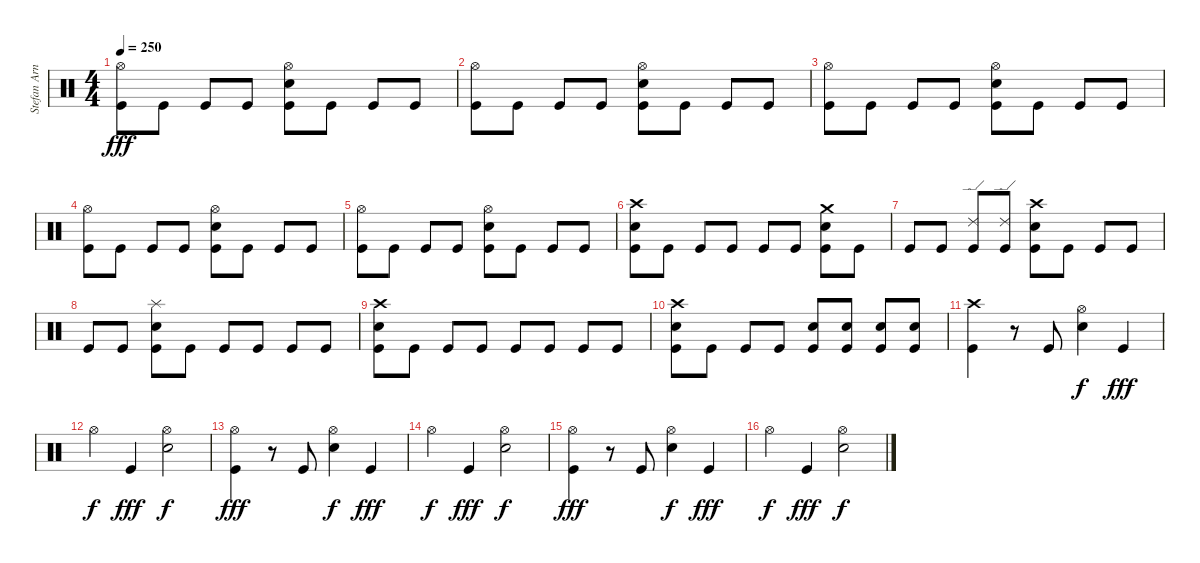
\track ("Stefan Arnold (Batería)" "Stefan Arn") {instrument percussion}
\staff {score}
\articulation defaults
\ts (4 4)
\tempo 250
\clef neutral
\ks c
("Hi-Hat (open)" "Kick (hit)").8{dy fff} "Kick (hit)".8 "Kick (hit)".8 "Kick (hit)".8 ("Hi-Hat (open)" "Electric Snare (hit)" "Kick (hit)").8 "Kick (hit)".8 "Kick (hit)".8 "Kick (hit)".8 |
("Hi-Hat (open)" "Kick (hit)").8 "Kick (hit)".8 "Kick (hit)".8 "Kick (hit)".8 ("Hi-Hat (open)" "Electric Snare (hit)" "Kick (hit)").8 "Kick (hit)".8 "Kick (hit)".8 "Kick (hit)".8 |
("Hi-Hat (open)" "Kick (hit)").8 "Kick (hit)".8 "Kick (hit)".8 "Kick (hit)".8 ("Hi-Hat (open)" "Electric Snare (hit)" "Kick (hit)").8 "Kick (hit)".8 "Kick (hit)".8 "Kick (hit)".8 |
("Hi-Hat (open)" "Kick (hit)").8 "Kick (hit)".8 "Kick (hit)".8 "Kick (hit)".8 ("Hi-Hat (open)" "Electric Snare (hit)" "Kick (hit)").8 "Kick (hit)".8 "Kick (hit)".8 "Kick (hit)".8 |
("Hi-Hat (open)" "Kick (hit)").8 "Kick (hit)".8 "Kick (hit)".8 "Kick (hit)".8 ("Hi-Hat (open)" "Electric Snare (hit)" "Kick (hit)").8 "Kick (hit)".8 "Kick (hit)".8 "Kick (hit)".8 |
("Crash high (hit)" "Electric Snare (hit)" "Kick (hit)").8 "Kick (hit)".8 "Kick (hit)".8 "Kick (hit)".8 "Kick (hit)".8 "Kick (hit)".8 ("Crash medium (hit)" "Electric Snare (hit)" "Kick (hit)").8 "Kick (hit)".8 |
"Kick (hit)".8 "Kick (hit)".8 ("Ride (edge) 2" "Kick (hit)").8 ("Ride (edge) 2" "Kick (hit)").8 ("Crash high (hit)" "Electric Snare (hit)" "Kick (hit)").8 "Kick (hit)".8 "Kick (hit)".8 "Kick (hit)".8 |
"Kick (hit)".8 "Kick (hit)".8 ("Splash (hit)" "Electric Snare (hit)" "Kick (hit)").8 "Kick (hit)".8 "Kick (hit)".8 "Kick (hit)".8 "Kick (hit)".8 "Kick (hit)".8 |
("Crash high (hit)" "Electric Snare (hit)" "Kick (hit)").8 "Kick (hit)".8 "Kick (hit)".8 "Kick (hit)".8 "Kick (hit)".8 "Kick (hit)".8 "Kick (hit)".8 "Kick (hit)".8 |
("Crash high (hit)" "Electric Snare (hit)" "Kick (hit)").8 "Kick (hit)".8 "Kick (hit)".8 "Kick (hit)".8 ("Electric Snare (hit)" "Kick (hit)").8 ("Electric Snare (hit)" "Kick (hit)").8 ("Electric Snare (hit)" "Kick (hit)").8 ("Electric Snare (hit)" "Kick (hit)").8 |
("Crash high (hit)" "Kick (hit)").4 r.8 "Kick (hit)".8 ("Hi-Hat (open)" "Electric Snare (hit)").4{dy f} "Kick (hit)".4{dy fff} |
"Hi-Hat (open)".4{dy f} "Kick (hit)".4{dy fff} ("Hi-Hat (open)" "Electric Snare (hit)").2{dy f} |
("Hi-Hat (open)" "Kick (hit)").4{dy fff} r.8 "Kick (hit)".8 ("Hi-Hat (open)" "Electric Snare (hit)").4{dy f} "Kick (hit)".4{dy fff} |
"Hi-Hat (open)".4{dy f} "Kick (hit)".4{dy fff} ("Hi-Hat (open)" "Electric Snare (hit)").2{dy f} |
("Hi-Hat (open)" "Kick (hit)").4{dy fff} r.8 "Kick (hit)".8 ("Hi-Hat (open)" "Electric Snare (hit)").4{dy f} "Kick (hit)".4{dy fff} |
"Hi-Hat (open)".4{dy f} "Kick (hit)".4{dy fff} ("Hi-Hat (open)" "Electric Snare (hit)").2{dy f}
